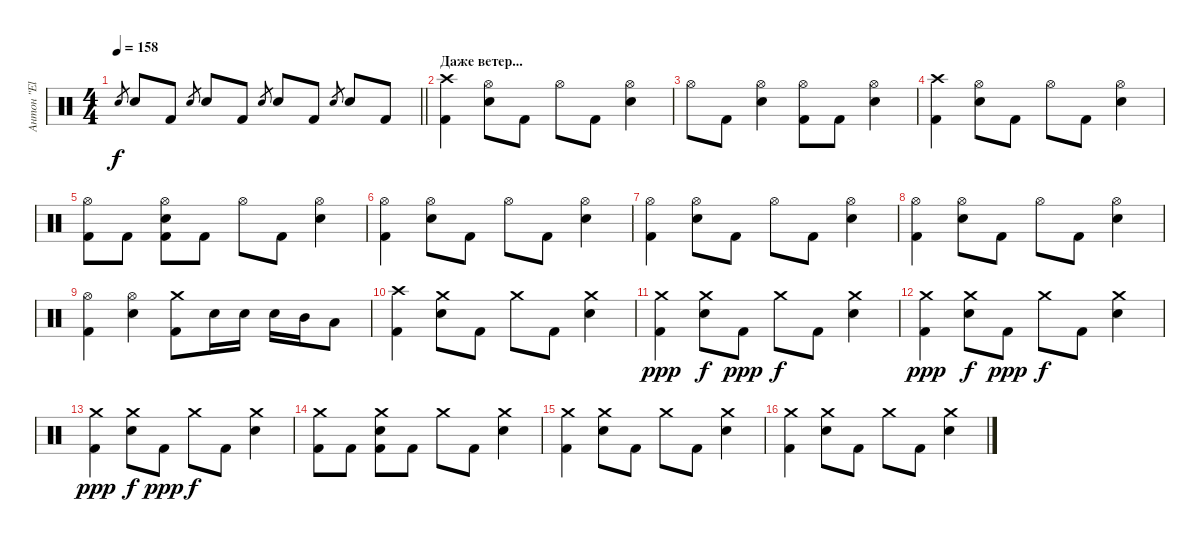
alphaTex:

\track ("Антон \"El Bastardo\" Смольянин" "Антон \"El ") {instrument percussion}
\staff {score}
\articulation defaults
\ts (4 4)
\tempo 158
\clef neutral
\barLineRight lightlight
\ks c "Electric Snare (hit)".8{gr dy f} "Electric Snare (hit)".8 "Kick (hit) 2".8 "Electric Snare (hit)".8{gr} "Electric Snare (hit)".8 "Kick (hit) 2".8 "Electric Snare (hit)".8{gr} "Electric Snare (hit)".8 "Kick (hit) 2".8 "Electric Snare (hit)".8{gr} "Electric Snare (hit)".8 "Kick (hit) 2".8
|
\section ("" "Даже ветер...")
("Crash high (hit)" "Kick (hit) 2").4 ("Hi-Hat (open)" "Electric Snare (hit)").8 "Kick (hit) 2".8 "Hi-Hat (open)".8 "Kick (hit) 2".8 ("Hi-Hat (open)" "Electric Snare (hit)").4 |
"Hi-Hat (open)".8 "Kick (hit) 2".8 ("Hi-Hat (open)" "Electric Snare (hit)").4 ("Hi-Hat (open)" "Kick (hit) 2").8 "Kick (hit) 2".8 ("Hi-Hat (open)" "Electric Snare (hit)").4 |
("Crash high (hit)" "Kick (hit) 2").4 ("Hi-Hat (open)" "Electric Snare (hit)").8 "Kick (hit) 2".8 "Hi-Hat (open)".8 "Kick (hit) 2".8 ("Hi-Hat (open)" "Electric Snare (hit)").4 |
("Hi-Hat (open)" "Kick (hit) 2").8 "Kick (hit) 2".8 ("Hi-Hat (open)" "Electric Snare (hit)" "Kick (hit) 2").8 "Kick (hit) 2".8 "Hi-Hat (open)".8 "Kick (hit) 2".8 ("Hi-Hat (open)" "Electric Snare (hit)").4 |
("Hi-Hat (open)" "Kick (hit) 2").4 ("Hi-Hat (open)" "Electric Snare (hit)").8 "Kick (hit) 2".8 "Hi-Hat (open)".8 "Kick (hit) 2".8 ("Hi-Hat (open)" "Electric Snare (hit)").4 |
("Hi-Hat (open)" "Kick (hit) 2").4 ("Hi-Hat (open)" "Electric Snare (hit)").8 "Kick (hit) 2".8 "Hi-Hat (open)".8 "Kick (hit) 2".8 ("Hi-Hat (open)" "Electric Snare (hit)").4 |
("Hi-Hat (open)" "Kick (hit) 2").4 ("Hi-Hat (open)" "Electric Snare (hit)").8 "Kick (hit) 2".8 "Hi-Hat (open)".8 "Kick (hit) 2".8 ("Hi-Hat (open)" "Electric Snare (hit)").4 |
("Hi-Hat (open)" "Kick (hit) 2").4 ("Hi-Hat (open)" "Electric Snare (hit)").4 ("Crash medium (hit)" "Kick (hit) 2").8 "Electric Snare (hit)".16 "Electric Snare (hit)".16 "Electric Snare (hit)".16 "Mid Tom (hit)".16 "Low Tom (hit)".8 |
("Crash high (hit)" "Kick (hit) 2").4 ("Crash medium (hit)" "Electric Snare (hit)").8 "Kick (hit) 2".8 "Crash medium (hit)".8 "Kick (hit) 2".8 ("Crash medium (hit)" "Electric Snare (hit)").4 |
("Crash medium (hit)" "Kick (hit) 2").4{dy ppp} ("Crash medium (hit)" "Electric Snare (hit)").8{dy f} "Kick (hit) 2".8{dy ppp} "Crash medium (hit)".8{dy f} "Kick (hit) 2".8 ("Crash medium (hit)" "Electric Snare (hit)").4 |
("Crash medium (hit)" "Kick (hit) 2").4{dy ppp} ("Crash medium (hit)" "Electric Snare (hit)").8{dy f} "Kick (hit) 2".8{dy ppp} "Crash medium (hit)".8{dy f} "Kick (hit) 2".8 ("Crash medium (hit)" "Electric Snare (hit)").4 |
("Crash medium (hit)" "Kick (hit) 2").4{dy ppp} ("Crash medium (hit)" "Electric Snare (hit)").8{dy f} "Kick (hit) 2".8{dy ppp} "Crash medium (hit)".8{dy f} "Kick (hit) 2".8 ("Crash medium (hit)" "Electric Snare (hit)").4 |
("Crash medium (hit)" "Kick (hit) 2").8 "Kick (hit) 2".8 ("Crash medium (hit)" "Electric Snare (hit)" "Kick (hit) 2").8 "Kick (hit) 2".8 "Crash medium (hit)".8 "Kick (hit) 2".8 ("Crash medium (hit)" "Electric Snare (hit)").4 |
("Crash medium (hit)" "Kick (hit) 2").4 ("Crash medium (hit)" "Electric Snare (hit)").8 "Kick (hit) 2".8 "Crash medium (hit)".8 "Kick (hit) 2".8 ("Crash medium (hit)" "Electric Snare (hit)").4 |
("Crash medium (hit)" "Kick (hit) 2").4 ("Crash medium (hit)" "Electric Snare (hit)").8 "Kick (hit) 2".8 "Crash medium (hit)".8 "Kick (hit) 2".8 ("Crash medium (hit)" "Electric Snare (hit)").4
